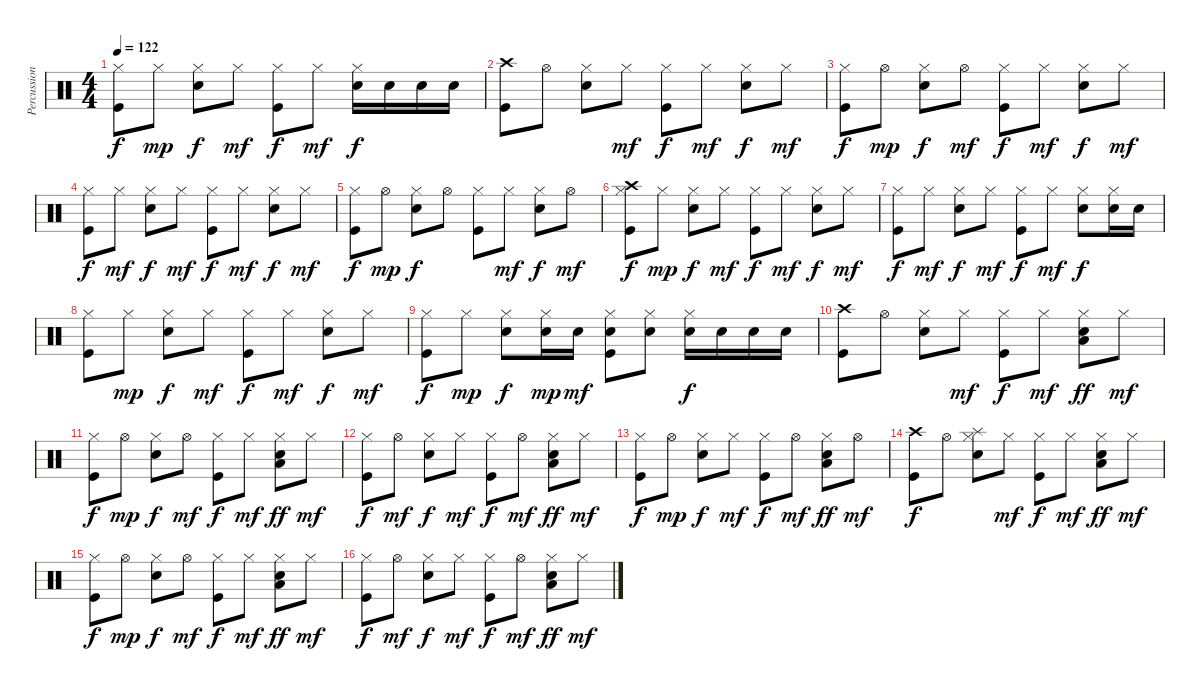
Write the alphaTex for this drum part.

\track ("Percussion" "Percussion") {instrument percussion}
\staff {score}
\articulation defaults
\ts (4 4)
\tempo 122
\clef neutral
\ks c
("Hi-Hat (closed)" "Kick (hit)").8{dy f} "Hi-Hat (closed)".8{dy mp} ("Hi-Hat (closed)" "Snare (hit) 2").8{dy f} "Hi-Hat (closed)".8{dy mf} ("Hi-Hat (closed)" "Kick (hit)").8{dy f} "Hi-Hat (closed)".8{dy mf} ("Hi-Hat (closed)" "Snare (hit) 2").16{dy f} "Snare (hit) 2".16 "Snare (hit) 2".16 "Snare (hit) 2".16 |
("Crash high (hit)" "Kick (hit)").8 "Hi-Hat (open)".8 ("Hi-Hat (closed)" "Snare (hit) 2").8 "Hi-Hat (closed)".8{dy mf} ("Hi-Hat (closed)" "Kick (hit)").8{dy f} "Hi-Hat (closed)".8{dy mf} ("Hi-Hat (closed)" "Snare (hit) 2").8{dy f} "Hi-Hat (closed)".8{dy mf} |
("Hi-Hat (closed)" "Kick (hit)").8{dy f} "Hi-Hat (open)".8{dy mp} ("Hi-Hat (closed)" "Snare (hit) 2").8{dy f} "Hi-Hat (open)".8{dy mf} ("Hi-Hat (closed)" "Kick (hit)").8{dy f} "Hi-Hat (closed)".8{dy mf} ("Hi-Hat (closed)" "Snare (hit) 2").8{dy f} "Hi-Hat (closed)".8{dy mf} |
("Hi-Hat (closed)" "Kick (hit)").8{dy f} "Hi-Hat (closed)".8{dy mf} ("Hi-Hat (closed)" "Snare (hit) 2").8{dy f} "Hi-Hat (closed)".8{dy mf} ("Hi-Hat (closed)" "Kick (hit)").8{dy f} "Hi-Hat (closed)".8{dy mf} ("Hi-Hat (closed)" "Snare (hit) 2").8{dy f} "Hi-Hat (closed)".8{dy mf} |
("Hi-Hat (closed)" "Kick (hit)").8{dy f} "Hi-Hat (open)".8{dy mp} ("Hi-Hat (closed)" "Snare (hit) 2").8{dy f} "Hi-Hat (open)".8 ("Hi-Hat (closed)" "Kick (hit)").8 "Hi-Hat (closed)".8{dy mf} ("Hi-Hat (closed)" "Snare (hit) 2").8{dy f} "Hi-Hat (open)".8{dy mf} |
("Crash high (hit)" "Hi-Hat (closed)" "Kick (hit)").8{dy f} "Hi-Hat (closed)".8{dy mp} ("Hi-Hat (closed)" "Snare (hit) 2").8{dy f} "Hi-Hat (closed)".8{dy mf} ("Hi-Hat (closed)" "Kick (hit)").8{dy f} "Hi-Hat (closed)".8{dy mf} ("Hi-Hat (closed)" "Snare (hit) 2").8{dy f} "Hi-Hat (closed)".8{dy mf} |
("Hi-Hat (closed)" "Kick (hit)").8{dy f} "Hi-Hat (closed)".8{dy mf} ("Hi-Hat (closed)" "Snare (hit) 2").8{dy f} "Hi-Hat (closed)".8{dy mf} ("Hi-Hat (closed)" "Kick (hit)").8{dy f} "Hi-Hat (closed)".8{dy mf} ("Hi-Hat (closed)" "Snare (hit) 2").8{dy f} ("Hi-Hat (closed)" "Snare (hit) 2").16 "Snare (hit) 2".16 |
("Hi-Hat (closed)" "Kick (hit)").8 "Hi-Hat (closed)".8{dy mp} ("Hi-Hat (closed)" "Snare (hit) 2").8{dy f} "Hi-Hat (closed)".8{dy mf} ("Hi-Hat (closed)" "Kick (hit)").8{dy f} "Hi-Hat (closed)".8{dy mf} ("Hi-Hat (closed)" "Snare (hit) 2").8{dy f} "Hi-Hat (closed)".8{dy mf} |
("Hi-Hat (closed)" "Kick (hit)").8{dy f} "Hi-Hat (closed)".8{dy mp} ("Hi-Hat (closed)" "Snare (hit) 2").8{dy f} ("Hi-Hat (closed)" "Snare (hit) 2").16{dy mp} "Snare (hit) 2".16{dy mf} ("Hi-Hat (closed)" "Snare (hit) 2" "Kick (hit)").8 ("Hi-Hat (closed)" "Snare (hit) 2").8 ("Hi-Hat (closed)" "Snare (hit) 2").16{dy f} "Snare (hit) 2".16 "Snare (hit) 2".16 "Snare (hit) 2".16 |
("Crash high (hit)" "Kick (hit)").8 "Hi-Hat (open)".8 ("Hi-Hat (closed)" "Snare (hit) 2").8 "Hi-Hat (closed)".8{dy mf} ("Hi-Hat (closed)" "Kick (hit)").8{dy f} "Hi-Hat (closed)".8{dy mf} ("Low Floor Tom (hit)" "Hi-Hat (closed)" "Snare (hit) 2").8{dy ff} "Hi-Hat (closed)".8{dy mf} |
("Hi-Hat (closed)" "Kick (hit)").8{dy f} "Hi-Hat (open)".8{dy mp} ("Hi-Hat (closed)" "Snare (hit) 2").8{dy f} "Hi-Hat (open)".8{dy mf} ("Hi-Hat (closed)" "Kick (hit)").8{dy f} "Hi-Hat (closed)".8{dy mf} ("Low Floor Tom (hit)" "Hi-Hat (closed)" "Snare (hit) 2").8{dy ff} "Hi-Hat (closed)".8{dy mf} |
("Hi-Hat (closed)" "Kick (hit)").8{dy f} "Hi-Hat (open)".8{dy mf} ("Hi-Hat (closed)" "Snare (hit) 2").8{dy f} "Hi-Hat (closed)".8{dy mf} ("Hi-Hat (closed)" "Kick (hit)").8{dy f} "Hi-Hat (open)".8{dy mf} ("Low Floor Tom (hit)" "Hi-Hat (closed)" "Snare (hit) 2").8{dy ff} "Hi-Hat (closed)".8{dy mf} |
("Hi-Hat (closed)" "Kick (hit)").8{dy f} "Hi-Hat (open)".8{dy mp} ("Hi-Hat (closed)" "Snare (hit) 2").8{dy f} "Hi-Hat (closed)".8{dy mf} ("Hi-Hat (closed)" "Kick (hit)").8{dy f} "Hi-Hat (open)".8{dy mf} ("Low Floor Tom (hit)" "Hi-Hat (closed)" "Snare (hit) 2").8{dy ff} "Hi-Hat (open)".8{dy mf} |
("Crash high (hit)" "Kick (hit)").8{dy f} "Hi-Hat (open)".8 ("Splash (hit)" "Hi-Hat (closed)" "Snare (hit) 2").8 "Hi-Hat (closed)".8{dy mf} ("Hi-Hat (closed)" "Kick (hit)").8{dy f} "Hi-Hat (closed)".8{dy mf} ("Low Floor Tom (hit)" "Hi-Hat (closed)" "Snare (hit) 2").8{dy ff} "Hi-Hat (closed)".8{dy mf} |
("Hi-Hat (closed)" "Kick (hit)").8{dy f} "Hi-Hat (open)".8{dy mp} ("Hi-Hat (closed)" "Snare (hit) 2").8{dy f} "Hi-Hat (open)".8{dy mf} ("Hi-Hat (closed)" "Kick (hit)").8{dy f} "Hi-Hat (closed)".8{dy mf} ("Low Floor Tom (hit)" "Hi-Hat (closed)" "Snare (hit) 2").8{dy ff} "Hi-Hat (closed)".8{dy mf} |
("Hi-Hat (closed)" "Kick (hit)").8{dy f} "Hi-Hat (open)".8{dy mf} ("Hi-Hat (closed)" "Snare (hit) 2").8{dy f} "Hi-Hat (closed)".8{dy mf} ("Hi-Hat (closed)" "Kick (hit)").8{dy f} "Hi-Hat (open)".8{dy mf} ("Low Floor Tom (hit)" "Hi-Hat (closed)" "Snare (hit) 2").8{dy ff} "Hi-Hat (closed)".8{dy mf}
